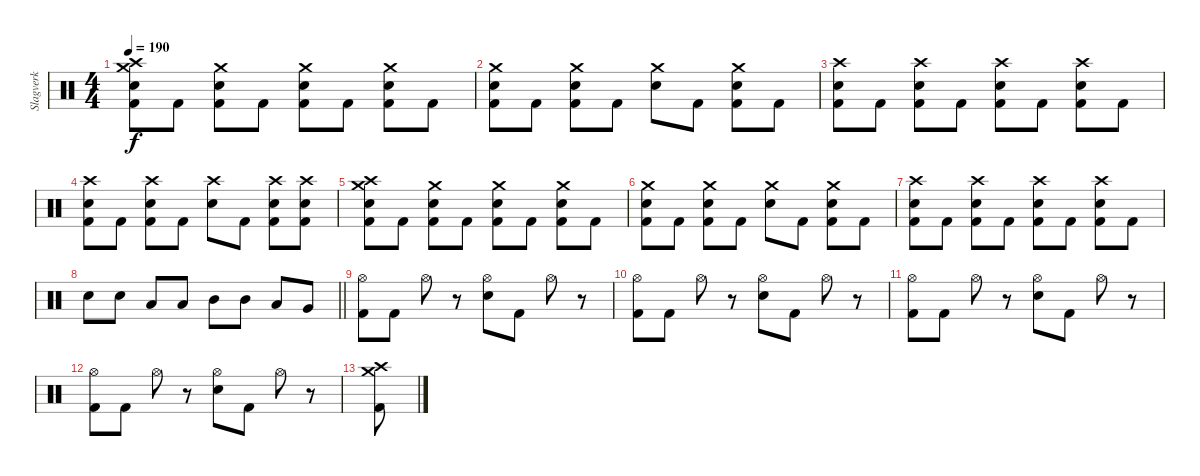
\track ("Slagverk" "Slagverk") {instrument percussion}
\staff {score}
\articulation defaults
\ts (4 4)
\tempo 190
\clef neutral
\ks c
("Crash medium (hit)" "Electric Snare (hit)" "Kick (hit) 2" "Crash high (hit)").8{dy f} "Kick (hit) 2".8 ("Crash medium (hit)" "Electric Snare (hit)" "Kick (hit) 2").8 "Kick (hit) 2".8 ("Crash medium (hit)" "Electric Snare (hit)" "Kick (hit) 2").8 "Kick (hit) 2".8 ("Crash medium (hit)" "Electric Snare (hit)" "Kick (hit) 2").8 "Kick (hit) 2".8 |
("Crash medium (hit)" "Electric Snare (hit)" "Kick (hit) 2").8 "Kick (hit) 2".8 ("Crash medium (hit)" "Electric Snare (hit)" "Kick (hit) 2").8 "Kick (hit) 2".8 ("Crash medium (hit)" "Electric Snare (hit)").8 "Kick (hit) 2".8 ("Crash medium (hit)" "Electric Snare (hit)" "Kick (hit) 2").8 "Kick (hit) 2".8 |
("Crash high (hit)" "Electric Snare (hit)" "Kick (hit) 2").8 "Kick (hit) 2".8 ("Crash high (hit)" "Electric Snare (hit)" "Kick (hit) 2").8 "Kick (hit) 2".8 ("Crash high (hit)" "Electric Snare (hit)" "Kick (hit) 2").8 "Kick (hit) 2".8 ("Crash high (hit)" "Electric Snare (hit)" "Kick (hit) 2").8 "Kick (hit) 2".8 |
("Crash high (hit)" "Electric Snare (hit)" "Kick (hit) 2").8 "Kick (hit) 2".8 ("Crash high (hit)" "Electric Snare (hit)" "Kick (hit) 2").8 "Kick (hit) 2".8 ("Crash high (hit)" "Electric Snare (hit)").8 "Kick (hit) 2".8 ("Crash high (hit)" "Electric Snare (hit)" "Kick (hit) 2").8 ("Crash high (hit)" "Electric Snare (hit)" "Kick (hit) 2").8 |
("Crash medium (hit)" "Electric Snare (hit)" "Kick (hit) 2" "Crash high (hit)").8 "Kick (hit) 2".8 ("Crash medium (hit)" "Electric Snare (hit)" "Kick (hit) 2").8 "Kick (hit) 2".8 ("Crash medium (hit)" "Electric Snare (hit)" "Kick (hit) 2").8 "Kick (hit) 2".8 ("Crash medium (hit)" "Electric Snare (hit)" "Kick (hit) 2").8 "Kick (hit) 2".8 |
("Crash medium (hit)" "Electric Snare (hit)" "Kick (hit) 2").8 "Kick (hit) 2".8 ("Crash medium (hit)" "Electric Snare (hit)" "Kick (hit) 2").8 "Kick (hit) 2".8 ("Crash medium (hit)" "Electric Snare (hit)").8 "Kick (hit) 2".8 ("Crash medium (hit)" "Electric Snare (hit)" "Kick (hit) 2").8 "Kick (hit) 2".8 |
("Crash high (hit)" "Electric Snare (hit)" "Kick (hit) 2").8 "Kick (hit) 2".8 ("Crash high (hit)" "Electric Snare (hit)" "Kick (hit) 2").8 "Kick (hit) 2".8 ("Crash high (hit)" "Electric Snare (hit)" "Kick (hit) 2").8 "Kick (hit) 2".8 ("Crash high (hit)" "Electric Snare (hit)" "Kick (hit) 2").8 "Kick (hit) 2".8 |
\barLineRight lightlight "Electric Snare (hit)".8 "Electric Snare (hit)".8 "Low Tom (hit)".8 "Low Tom (hit)".8 "Mid Tom (hit)".8 "Mid Tom (hit)".8 "Low Tom (hit)".8 "Very Low Tom (hit)".8
|
("Hi-Hat (open)" "Kick (hit) 2").8 "Kick (hit) 2".8 "Hi-Hat (open)".8 r.8 ("Hi-Hat (open)" "Electric Snare (hit)").8 "Kick (hit) 2".8 "Hi-Hat (open)".8 r.8 |
("Hi-Hat (open)" "Kick (hit) 2").8 "Kick (hit) 2".8 "Hi-Hat (open)".8 r.8 ("Hi-Hat (open)" "Electric Snare (hit)").8 "Kick (hit) 2".8 "Hi-Hat (open)".8 r.8 |
("Hi-Hat (open)" "Kick (hit) 2").8 "Kick (hit) 2".8 "Hi-Hat (open)".8 r.8 ("Hi-Hat (open)" "Electric Snare (hit)").8 "Kick (hit) 2".8 "Hi-Hat (open)".8 r.8 |
("Hi-Hat (open)" "Kick (hit) 2").8 "Kick (hit) 2".8 "Hi-Hat (open)".8 r.8 ("Hi-Hat (open)" "Electric Snare (hit)").8 "Kick (hit) 2".8 "Hi-Hat (open)".8 r.8 |
("Kick (hit) 2" "Crash high (hit)" "Crash medium (hit)").8
